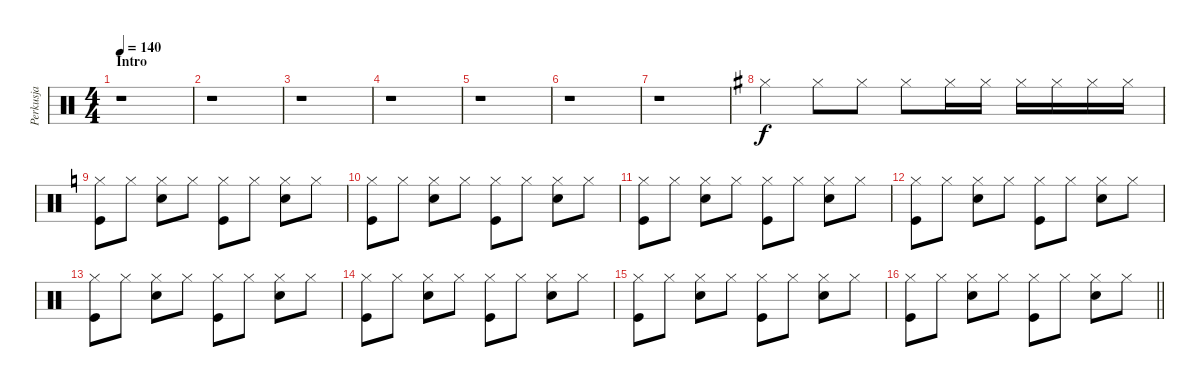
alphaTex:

\track ("Perkusja" "Perkusja") {instrument percussion}
\staff {score}
\articulation defaults
\ts (4 4)
\section ("" "Intro")
\tempo 140
\clef neutral
\ks c
r.1{dy f} |
r.1 |
r.1 |
r.1 |
r.1 |
r.1 |
r.1 |
\ks g "Hi-Hat (closed)".4 "Hi-Hat (closed)".8 "Hi-Hat (closed)".8 "Hi-Hat (closed)".8 "Hi-Hat (closed)".16 "Hi-Hat (closed)".16 "Hi-Hat (closed)".16 "Hi-Hat (closed)".16 "Hi-Hat (closed)".16 "Hi-Hat (closed)".16
|
\ks c
("Hi-Hat (closed)" "Kick (hit)").8 "Hi-Hat (closed)".8 ("Hi-Hat (closed)" "Electric Snare (hit)").8 "Hi-Hat (closed)".8 ("Hi-Hat (closed)" "Kick (hit)").8 "Hi-Hat (closed)".8 ("Hi-Hat (closed)" "Electric Snare (hit)").8 "Hi-Hat (closed)".8 |
("Hi-Hat (closed)" "Kick (hit)").8 "Hi-Hat (closed)".8 ("Hi-Hat (closed)" "Electric Snare (hit)").8 "Hi-Hat (closed)".8 ("Hi-Hat (closed)" "Kick (hit)").8 "Hi-Hat (closed)".8 ("Hi-Hat (closed)" "Electric Snare (hit)").8 "Hi-Hat (closed)".8 |
("Hi-Hat (closed)" "Kick (hit)").8 "Hi-Hat (closed)".8 ("Hi-Hat (closed)" "Electric Snare (hit)").8 "Hi-Hat (closed)".8 ("Hi-Hat (closed)" "Kick (hit)").8 "Hi-Hat (closed)".8 ("Hi-Hat (closed)" "Electric Snare (hit)").8 "Hi-Hat (closed)".8 |
("Hi-Hat (closed)" "Kick (hit)").8 "Hi-Hat (closed)".8 ("Hi-Hat (closed)" "Electric Snare (hit)").8 "Hi-Hat (closed)".8 ("Hi-Hat (closed)" "Kick (hit)").8 "Hi-Hat (closed)".8 ("Hi-Hat (closed)" "Electric Snare (hit)").8 "Hi-Hat (closed)".8 |
("Hi-Hat (closed)" "Kick (hit)").8 "Hi-Hat (closed)".8 ("Hi-Hat (closed)" "Electric Snare (hit)").8 "Hi-Hat (closed)".8 ("Hi-Hat (closed)" "Kick (hit)").8 "Hi-Hat (closed)".8 ("Hi-Hat (closed)" "Electric Snare (hit)").8 "Hi-Hat (closed)".8 |
("Hi-Hat (closed)" "Kick (hit)").8 "Hi-Hat (closed)".8 ("Hi-Hat (closed)" "Electric Snare (hit)").8 "Hi-Hat (closed)".8 ("Hi-Hat (closed)" "Kick (hit)").8 "Hi-Hat (closed)".8 ("Hi-Hat (closed)" "Electric Snare (hit)").8 "Hi-Hat (closed)".8 |
("Hi-Hat (closed)" "Kick (hit)").8 "Hi-Hat (closed)".8 ("Hi-Hat (closed)" "Electric Snare (hit)").8 "Hi-Hat (closed)".8 ("Hi-Hat (closed)" "Kick (hit)").8 "Hi-Hat (closed)".8 ("Hi-Hat (closed)" "Electric Snare (hit)").8 "Hi-Hat (closed)".8 |
\barLineRight lightlight
("Hi-Hat (closed)" "Kick (hit)").8 "Hi-Hat (closed)".8 ("Hi-Hat (closed)" "Electric Snare (hit)").8 "Hi-Hat (closed)".8 ("Hi-Hat (closed)" "Kick (hit)").8 "Hi-Hat (closed)".8 ("Hi-Hat (closed)" "Electric Snare (hit)").8 "Hi-Hat (closed)".8
